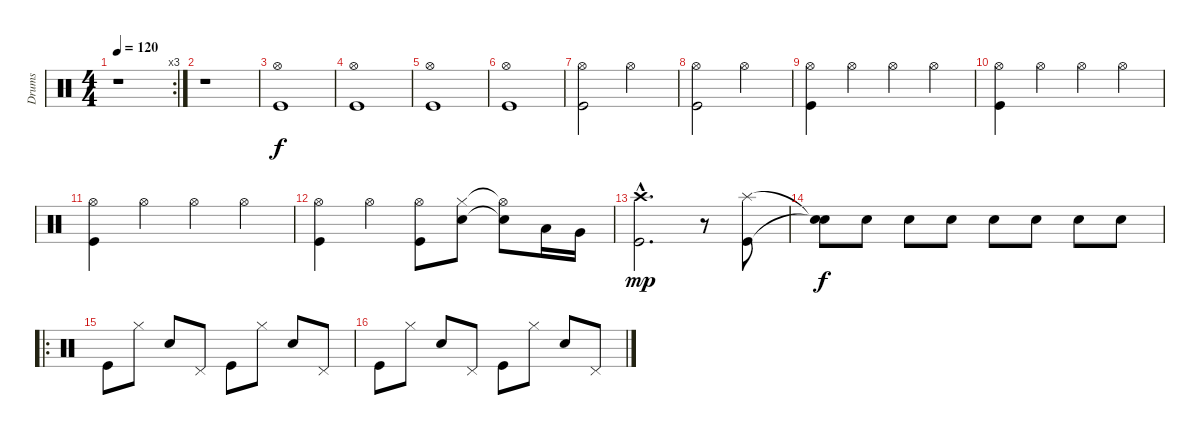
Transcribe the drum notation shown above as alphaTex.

\track ("Drums" "Drums") {instrument percussion}
\staff {score}
\articulation defaults
\rc 3
\ts (4 4)
\tempo 120
\clef neutral
\ks c
r.1{dy f} |
r.1 |
("Hi-Hat (open)" "Kick (hit)").1 |
("Hi-Hat (open)" "Kick (hit)").1 |
("Hi-Hat (open)" "Kick (hit)").1 |
("Hi-Hat (open)" "Kick (hit)").1 |
("Hi-Hat (open)" "Kick (hit)").2 "Hi-Hat (open)".2 |
("Hi-Hat (open)" "Kick (hit)").2 "Hi-Hat (open)".2 |
("Hi-Hat (open)" "Kick (hit)").4 "Hi-Hat (open)".4 "Hi-Hat (open)".4 "Hi-Hat (open)".4 |
("Hi-Hat (open)" "Kick (hit)").4 "Hi-Hat (open)".4 "Hi-Hat (open)".4 "Hi-Hat (open)".4 |
("Hi-Hat (open)" "Kick (hit)").4 "Hi-Hat (open)".4 "Hi-Hat (open)".4 "Hi-Hat (open)".4 |
("Hi-Hat (open)" "Kick (hit)").4 "Hi-Hat (open)".4 ("Hi-Hat (open)" "Kick (hit)").8 ("Hi-Hat (closed)" "Electric Snare (hit)").8 ("Hi-Hat (open)"{t} "Snare (hit)"{t}).8 "Low Tom (hit)".16 "Very Low Tom (hit)".16 |
("Crash high (hit)"{hac} "Kick (hit)"{hac}).2{d dy mp} r.8 ("Splash (hit)" "Kick (hit)").8 |
("Snare (hit)"{t} "Snare (hit)"{t}).8{dy f} "Snare (hit) 2".8 "Snare (hit) 2".8 "Snare (hit) 2".8 "Snare (hit) 2".8 "Snare (hit) 2".8 "Snare (hit) 2".8 "Snare (hit) 2".8 |
\ro "Kick (hit)".8 "Hi-Hat (closed)".8 "Snare (hit) 2".8 "Pedal Hi-Hat (hit)".8 "Kick (hit)".8 "Hi-Hat (closed)".8 "Snare (hit) 2".8 "Pedal Hi-Hat (hit)".8
|
"Kick (hit)".8 "Hi-Hat (closed)".8 "Snare (hit) 2".8 "Pedal Hi-Hat (hit)".8 "Kick (hit)".8 "Hi-Hat (closed)".8 "Snare (hit) 2".8 "Pedal Hi-Hat (hit)".8
